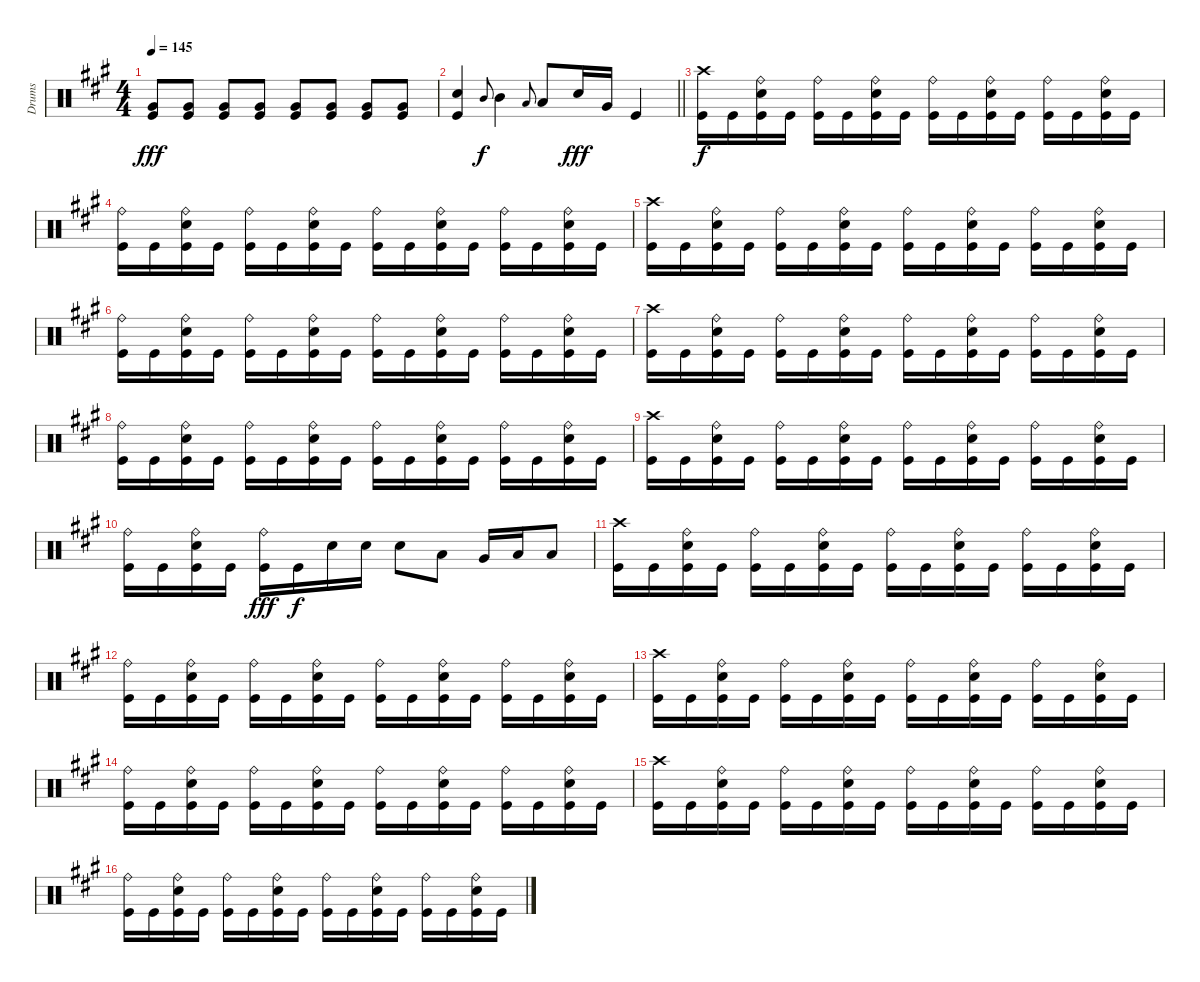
\track ("Drums" "Drums") {instrument percussion}
\staff {score}
\articulation defaults
\ts (4 4)
\tempo 145
\clef neutral
\ks f#minor
("Very Low Tom (hit)" "Kick (hit)").8{dy fff} ("Very Low Tom (hit)" "Kick (hit)").8 ("Very Low Tom (hit)" "Kick (hit)").8 ("Very Low Tom (hit)" "Kick (hit)").8 ("Very Low Tom (hit)" "Kick (hit)").8 ("Very Low Tom (hit)" "Kick (hit)").8 ("Very Low Tom (hit)" "Kick (hit)").8 ("Very Low Tom (hit)" "Kick (hit)").8 |
\barLineRight lightlight
("Snare (hit) 2" "Kick (hit)").4 "Mid Tom (hit)".8{gr onbeat dy f} "Mid Tom (hit)".4 "Low Tom (hit)".8{gr onbeat} "Low Tom (hit)".8 "Snare (hit) 2".16{dy fff} "Very Low Tom (hit)".16 "Kick (hit)".4 |
("Crash high (hit)" "Kick (hit)").16{dy f} "Kick (hit)".16 ("Ride (bell)" "Snare (hit) 2" "Kick (hit)").16 "Kick (hit)".16 ("Ride (bell)" "Kick (hit)").16 "Kick (hit)".16 ("Ride (bell)" "Snare (hit) 2" "Kick (hit)").16 "Kick (hit)".16 ("Ride (bell)" "Kick (hit)").16 "Kick (hit)".16 ("Ride (bell)" "Snare (hit) 2" "Kick (hit)").16 "Kick (hit)".16 ("Ride (bell)" "Kick (hit)").16 "Kick (hit)".16 ("Ride (bell)" "Snare (hit) 2" "Kick (hit)").16 "Kick (hit)".16 |
("Ride (bell)" "Kick (hit)").16 "Kick (hit)".16 ("Ride (bell)" "Snare (hit) 2" "Kick (hit)").16 "Kick (hit)".16 ("Ride (bell)" "Kick (hit)").16 "Kick (hit)".16 ("Ride (bell)" "Snare (hit) 2" "Kick (hit)").16 "Kick (hit)".16 ("Ride (bell)" "Kick (hit)").16 "Kick (hit)".16 ("Ride (bell)" "Snare (hit) 2" "Kick (hit)").16 "Kick (hit)".16 ("Ride (bell)" "Kick (hit)").16 "Kick (hit)".16 ("Ride (bell)" "Snare (hit) 2" "Kick (hit)").16 "Kick (hit)".16 |
("Crash high (hit)" "Kick (hit)").16 "Kick (hit)".16 ("Ride (bell)" "Snare (hit) 2" "Kick (hit)").16 "Kick (hit)".16 ("Ride (bell)" "Kick (hit)").16 "Kick (hit)".16 ("Ride (bell)" "Snare (hit) 2" "Kick (hit)").16 "Kick (hit)".16 ("Ride (bell)" "Kick (hit)").16 "Kick (hit)".16 ("Ride (bell)" "Snare (hit) 2" "Kick (hit)").16 "Kick (hit)".16 ("Ride (bell)" "Kick (hit)").16 "Kick (hit)".16 ("Ride (bell)" "Snare (hit) 2" "Kick (hit)").16 "Kick (hit)".16 |
("Ride (bell)" "Kick (hit)").16 "Kick (hit)".16 ("Ride (bell)" "Snare (hit) 2" "Kick (hit)").16 "Kick (hit)".16 ("Ride (bell)" "Kick (hit)").16 "Kick (hit)".16 ("Ride (bell)" "Snare (hit) 2" "Kick (hit)").16 "Kick (hit)".16 ("Ride (bell)" "Kick (hit)").16 "Kick (hit)".16 ("Ride (bell)" "Snare (hit) 2" "Kick (hit)").16 "Kick (hit)".16 ("Ride (bell)" "Kick (hit)").16 "Kick (hit)".16 ("Ride (bell)" "Snare (hit) 2" "Kick (hit)").16 "Kick (hit)".16 |
("Crash high (hit)" "Kick (hit)").16 "Kick (hit)".16 ("Ride (bell)" "Snare (hit) 2" "Kick (hit)").16 "Kick (hit)".16 ("Ride (bell)" "Kick (hit)").16 "Kick (hit)".16 ("Ride (bell)" "Snare (hit) 2" "Kick (hit)").16 "Kick (hit)".16 ("Ride (bell)" "Kick (hit)").16 "Kick (hit)".16 ("Ride (bell)" "Snare (hit) 2" "Kick (hit)").16 "Kick (hit)".16 ("Ride (bell)" "Kick (hit)").16 "Kick (hit)".16 ("Ride (bell)" "Snare (hit) 2" "Kick (hit)").16 "Kick (hit)".16 |
("Ride (bell)" "Kick (hit)").16 "Kick (hit)".16 ("Ride (bell)" "Snare (hit) 2" "Kick (hit)").16 "Kick (hit)".16 ("Ride (bell)" "Kick (hit)").16 "Kick (hit)".16 ("Ride (bell)" "Snare (hit) 2" "Kick (hit)").16 "Kick (hit)".16 ("Ride (bell)" "Kick (hit)").16 "Kick (hit)".16 ("Ride (bell)" "Snare (hit) 2" "Kick (hit)").16 "Kick (hit)".16 ("Ride (bell)" "Kick (hit)").16 "Kick (hit)".16 ("Ride (bell)" "Snare (hit) 2" "Kick (hit)").16 "Kick (hit)".16 |
("Crash high (hit)" "Kick (hit)").16 "Kick (hit)".16 ("Ride (bell)" "Snare (hit) 2" "Kick (hit)").16 "Kick (hit)".16 ("Ride (bell)" "Kick (hit)").16 "Kick (hit)".16 ("Ride (bell)" "Snare (hit) 2" "Kick (hit)").16 "Kick (hit)".16 ("Ride (bell)" "Kick (hit)").16 "Kick (hit)".16 ("Ride (bell)" "Snare (hit) 2" "Kick (hit)").16 "Kick (hit)".16 ("Ride (bell)" "Kick (hit)").16 "Kick (hit)".16 ("Ride (bell)" "Snare (hit) 2" "Kick (hit)").16 "Kick (hit)".16 |
("Ride (bell)" "Kick (hit)").16 "Kick (hit)".16 ("Ride (bell)" "Snare (hit) 2" "Kick (hit)").16 "Kick (hit)".16 ("Ride (bell)" "Kick (hit)").16{dy fff} "Kick (hit)".16{dy f} "Snare (hit) 2".16 "Snare (hit) 2".16 "Snare (hit) 2".8 "Low Tom (hit)".8 "Very Low Tom (hit)".16 "Low Tom (hit)".16 "Low Floor Tom (hit)".8 |
("Crash high (hit)" "Kick (hit)").16 "Kick (hit)".16 ("Ride (bell)" "Snare (hit) 2" "Kick (hit)").16 "Kick (hit)".16 ("Ride (bell)" "Kick (hit)").16 "Kick (hit)".16 ("Ride (bell)" "Snare (hit) 2" "Kick (hit)").16 "Kick (hit)".16 ("Ride (bell)" "Kick (hit)").16 "Kick (hit)".16 ("Ride (bell)" "Snare (hit) 2" "Kick (hit)").16 "Kick (hit)".16 ("Ride (bell)" "Kick (hit)").16 "Kick (hit)".16 ("Ride (bell)" "Snare (hit) 2" "Kick (hit)").16 "Kick (hit)".16 |
("Ride (bell)" "Kick (hit)").16 "Kick (hit)".16 ("Ride (bell)" "Snare (hit) 2" "Kick (hit)").16 "Kick (hit)".16 ("Ride (bell)" "Kick (hit)").16 "Kick (hit)".16 ("Ride (bell)" "Snare (hit) 2" "Kick (hit)").16 "Kick (hit)".16 ("Ride (bell)" "Kick (hit)").16 "Kick (hit)".16 ("Ride (bell)" "Snare (hit) 2" "Kick (hit)").16 "Kick (hit)".16 ("Ride (bell)" "Kick (hit)").16 "Kick (hit)".16 ("Ride (bell)" "Snare (hit) 2" "Kick (hit)").16 "Kick (hit)".16 |
("Crash high (hit)" "Kick (hit)").16 "Kick (hit)".16 ("Ride (bell)" "Snare (hit) 2" "Kick (hit)").16 "Kick (hit)".16 ("Ride (bell)" "Kick (hit)").16 "Kick (hit)".16 ("Ride (bell)" "Snare (hit) 2" "Kick (hit)").16 "Kick (hit)".16 ("Ride (bell)" "Kick (hit)").16 "Kick (hit)".16 ("Ride (bell)" "Snare (hit) 2" "Kick (hit)").16 "Kick (hit)".16 ("Ride (bell)" "Kick (hit)").16 "Kick (hit)".16 ("Ride (bell)" "Snare (hit) 2" "Kick (hit)").16 "Kick (hit)".16 |
("Ride (bell)" "Kick (hit)").16 "Kick (hit)".16 ("Ride (bell)" "Snare (hit) 2" "Kick (hit)").16 "Kick (hit)".16 ("Ride (bell)" "Kick (hit)").16 "Kick (hit)".16 ("Ride (bell)" "Snare (hit) 2" "Kick (hit)").16 "Kick (hit)".16 ("Ride (bell)" "Kick (hit)").16 "Kick (hit)".16 ("Ride (bell)" "Snare (hit) 2" "Kick (hit)").16 "Kick (hit)".16 ("Ride (bell)" "Kick (hit)").16 "Kick (hit)".16 ("Ride (bell)" "Snare (hit) 2" "Kick (hit)").16 "Kick (hit)".16 |
("Crash high (hit)" "Kick (hit)").16 "Kick (hit)".16 ("Ride (bell)" "Snare (hit) 2" "Kick (hit)").16 "Kick (hit)".16 ("Ride (bell)" "Kick (hit)").16 "Kick (hit)".16 ("Ride (bell)" "Snare (hit) 2" "Kick (hit)").16 "Kick (hit)".16 ("Ride (bell)" "Kick (hit)").16 "Kick (hit)".16 ("Ride (bell)" "Snare (hit) 2" "Kick (hit)").16 "Kick (hit)".16 ("Ride (bell)" "Kick (hit)").16 "Kick (hit)".16 ("Ride (bell)" "Snare (hit) 2" "Kick (hit)").16 "Kick (hit)".16 |
("Ride (bell)" "Kick (hit)").16 "Kick (hit)".16 ("Ride (bell)" "Snare (hit) 2" "Kick (hit)").16 "Kick (hit)".16 ("Ride (bell)" "Kick (hit)").16 "Kick (hit)".16 ("Ride (bell)" "Snare (hit) 2" "Kick (hit)").16 "Kick (hit)".16 ("Ride (bell)" "Kick (hit)").16 "Kick (hit)".16 ("Ride (bell)" "Snare (hit) 2" "Kick (hit)").16 "Kick (hit)".16 ("Ride (bell)" "Kick (hit)").16 "Kick (hit)".16 ("Ride (bell)" "Snare (hit) 2" "Kick (hit)").16 "Kick (hit)".16
